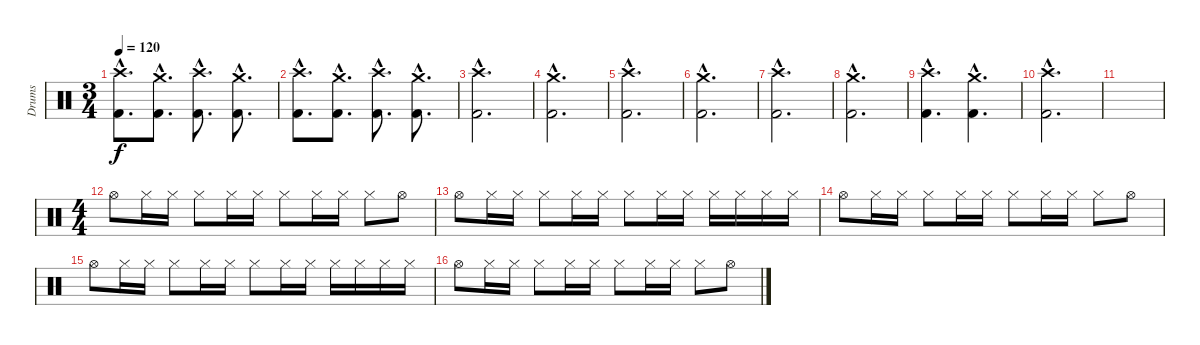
\track ("Drums" "Drums") {instrument percussion}
\staff {score}
\articulation defaults
\ts (3 4)
\tempo 120
\clef neutral
\ks c
("Crash high (hit)"{hac} "Kick (hit) 2"{hac}).8{d dy f} ("Crash medium (hit)"{hac} "Kick (hit) 2"{hac}).8{d} ("Crash high (hit)"{hac} "Kick (hit) 2"{hac}).8{d} ("Crash medium (hit)"{hac} "Kick (hit) 2"{hac}).8{d} |
("Crash high (hit)"{hac} "Kick (hit) 2"{hac}).8{d} ("Crash medium (hit)"{hac} "Kick (hit) 2"{hac}).8{d} ("Crash high (hit)"{hac} "Kick (hit) 2"{hac}).8{d} ("Crash medium (hit)"{hac} "Kick (hit) 2"{hac}).8{d} |
("Crash high (hit)"{hac} "Kick (hit) 2"{hac}).2{d} |
("Crash medium (hit)"{hac} "Kick (hit) 2"{hac}).2{d} |
("Crash high (hit)"{hac} "Kick (hit) 2"{hac}).2{d} |
("Crash medium (hit)"{hac} "Kick (hit) 2"{hac}).2{d} |
("Crash high (hit)"{hac} "Kick (hit) 2"{hac}).2{d} |
("Crash medium (hit)"{hac} "Kick (hit) 2"{hac}).2{d} |
("Crash high (hit)"{hac} "Kick (hit) 2"{hac}).4{d} ("Crash medium (hit)"{hac} "Kick (hit) 2"{hac}).4{d} |
("Crash high (hit)"{hac} "Kick (hit) 2"{hac}).2{d} |
|
\ts (4 4)
"Hi-Hat (open)".8 "Hi-Hat (closed)".16 "Hi-Hat (closed)".16 "Hi-Hat (closed)".8 "Hi-Hat (closed)".16 "Hi-Hat (closed)".16 "Hi-Hat (closed)".8 "Hi-Hat (closed)".16 "Hi-Hat (closed)".16 "Hi-Hat (closed)".8 "Hi-Hat (open)".8 |
"Hi-Hat (open)".8 "Hi-Hat (closed)".16 "Hi-Hat (closed)".16 "Hi-Hat (closed)".8 "Hi-Hat (closed)".16 "Hi-Hat (closed)".16 "Hi-Hat (closed)".8 "Hi-Hat (closed)".16 "Hi-Hat (closed)".16 "Hi-Hat (closed)".16 "Hi-Hat (closed)".16 "Hi-Hat (closed)".16 "Hi-Hat (closed)".16 |
"Hi-Hat (open)".8 "Hi-Hat (closed)".16 "Hi-Hat (closed)".16 "Hi-Hat (closed)".8 "Hi-Hat (closed)".16 "Hi-Hat (closed)".16 "Hi-Hat (closed)".8 "Hi-Hat (closed)".16 "Hi-Hat (closed)".16 "Hi-Hat (closed)".8 "Hi-Hat (open)".8 |
"Hi-Hat (open)".8 "Hi-Hat (closed)".16 "Hi-Hat (closed)".16 "Hi-Hat (closed)".8 "Hi-Hat (closed)".16 "Hi-Hat (closed)".16 "Hi-Hat (closed)".8 "Hi-Hat (closed)".16 "Hi-Hat (closed)".16 "Hi-Hat (closed)".16 "Hi-Hat (closed)".16 "Hi-Hat (closed)".16 "Hi-Hat (closed)".16 |
"Hi-Hat (open)".8 "Hi-Hat (closed)".16 "Hi-Hat (closed)".16 "Hi-Hat (closed)".8 "Hi-Hat (closed)".16 "Hi-Hat (closed)".16 "Hi-Hat (closed)".8 "Hi-Hat (closed)".16 "Hi-Hat (closed)".16 "Hi-Hat (closed)".8 "Hi-Hat (open)".8
